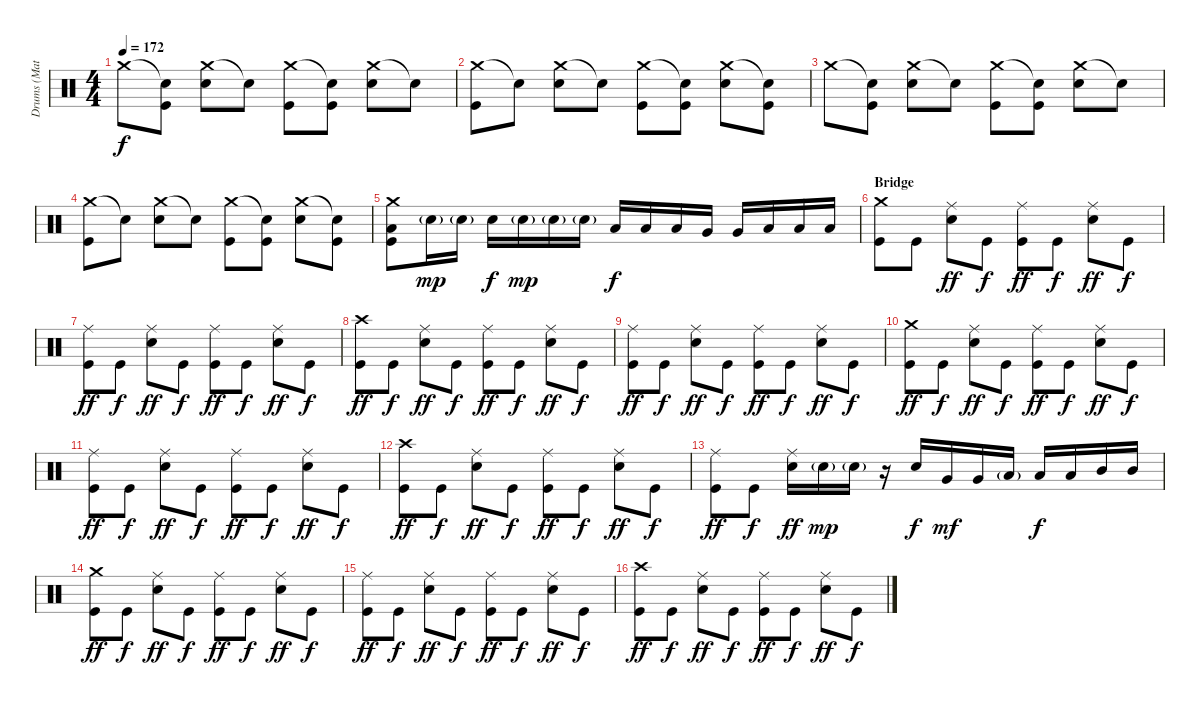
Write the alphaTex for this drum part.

\track ("Drums (Matt)" "Drums (Mat") {instrument percussion}
\staff {score}
\articulation defaults
\ts (4 4)
\tempo 172
\clef neutral
\ks c "Crash medium (hit)".8{dy f}
("Snare (hit)"{t} "Kick (hit)").8 ("Crash medium (hit)" "Electric Snare (hit)").8 "Snare (hit)"{t}.8 ("Crash medium (hit)" "Kick (hit)").8 ("Snare (hit)"{t} "Kick (hit)").8 ("Crash medium (hit)" "Electric Snare (hit)").8 "Snare (hit)"{t}.8 |
("Crash medium (hit)" "Kick (hit)").8 "Snare (hit)"{t}.8 ("Crash medium (hit)" "Electric Snare (hit)").8 "Snare (hit)"{t}.8 ("Crash medium (hit)" "Kick (hit)").8 ("Snare (hit)"{t} "Kick (hit)").8 ("Crash medium (hit)" "Electric Snare (hit)").8 ("Snare (hit)"{t} "Kick (hit)").8 |
"Crash medium (hit)".8 ("Snare (hit)"{t} "Kick (hit)").8 ("Crash medium (hit)" "Electric Snare (hit)").8 "Snare (hit)"{t}.8 ("Crash medium (hit)" "Kick (hit)").8 ("Snare (hit)"{t} "Kick (hit)").8 ("Crash medium (hit)" "Electric Snare (hit)").8 "Snare (hit)"{t}.8 |
("Crash medium (hit)" "Kick (hit)").8 "Snare (hit)"{t}.8 ("Crash medium (hit)" "Electric Snare (hit)").8 "Snare (hit)"{t}.8 ("Crash medium (hit)" "Kick (hit)").8 ("Snare (hit)"{t} "Kick (hit)").8 ("Crash medium (hit)" "Electric Snare (hit)").8 ("Snare (hit)"{t} "Kick (hit)").8 |
("Crash medium (hit)" "Low Tom (hit)" "Kick (hit)").8 "Electric Snare (hit)"{g}.16{dy mp} "Electric Snare (hit)"{g}.16 "Electric Snare (hit)".16{dy f} "Electric Snare (hit)"{g}.16{dy mp} "Electric Snare (hit)"{g}.16 "Electric Snare (hit)"{g}.16 "Low Tom (hit)".16{dy f} "Low Tom (hit)".16 "Low Tom (hit)".16 "Very Low Tom (hit)".16 "Very Low Tom (hit)".16 "Low Floor Tom (hit)".16 "Low Floor Tom (hit)".16 "Low Floor Tom (hit)".16 |
\section ("" "Bridge")
("Crash medium (hit)" "Kick (hit)").8 "Kick (hit)".8 ("Ride (middle)" "Electric Snare (hit)").8{dy ff} "Kick (hit)".8{dy f} ("Ride (middle)" "Kick (hit)").8{dy ff} "Kick (hit)".8{dy f} ("Ride (middle)" "Electric Snare (hit)").8{dy ff} "Kick (hit)".8{dy f} |
("Ride (middle)" "Kick (hit)").8{dy ff} "Kick (hit)".8{dy f} ("Ride (middle)" "Electric Snare (hit)").8{dy ff} "Kick (hit)".8{dy f} ("Ride (middle)" "Kick (hit)").8{dy ff} "Kick (hit)".8{dy f} ("Ride (middle)" "Electric Snare (hit)").8{dy ff} "Kick (hit)".8{dy f} |
("Crash high (hit)" "Kick (hit)").8{dy ff} "Kick (hit)".8{dy f} ("Ride (middle)" "Electric Snare (hit)").8{dy ff} "Kick (hit)".8{dy f} ("Ride (middle)" "Kick (hit)").8{dy ff} "Kick (hit)".8{dy f} ("Ride (middle)" "Electric Snare (hit)").8{dy ff} "Kick (hit)".8{dy f} |
("Ride (middle)" "Kick (hit)").8{dy ff} "Kick (hit)".8{dy f} ("Ride (middle)" "Electric Snare (hit)").8{dy ff} "Kick (hit)".8{dy f} ("Ride (middle)" "Kick (hit)").8{dy ff} "Kick (hit)".8{dy f} ("Ride (middle)" "Electric Snare (hit)").8{dy ff} "Kick (hit)".8{dy f} |
("Crash medium (hit)" "Kick (hit)").8{dy ff} "Kick (hit)".8{dy f} ("Ride (middle)" "Electric Snare (hit)").8{dy ff} "Kick (hit)".8{dy f} ("Ride (middle)" "Kick (hit)").8{dy ff} "Kick (hit)".8{dy f} ("Ride (middle)" "Electric Snare (hit)").8{dy ff} "Kick (hit)".8{dy f} |
("Ride (middle)" "Kick (hit)").8{dy ff} "Kick (hit)".8{dy f} ("Ride (middle)" "Electric Snare (hit)").8{dy ff} "Kick (hit)".8{dy f} ("Ride (middle)" "Kick (hit)").8{dy ff} "Kick (hit)".8{dy f} ("Ride (middle)" "Electric Snare (hit)").8{dy ff} "Kick (hit)".8{dy f} |
("Crash high (hit)" "Kick (hit)").8{dy ff} "Kick (hit)".8{dy f} ("Ride (middle)" "Electric Snare (hit)").8{dy ff} "Kick (hit)".8{dy f} ("Ride (middle)" "Kick (hit)").8{dy ff} "Kick (hit)".8{dy f} ("Ride (middle)" "Electric Snare (hit)").8{dy ff} "Kick (hit)".8{dy f} |
("Ride (middle)" "Kick (hit)").8{dy ff} "Kick (hit)".8{dy f} ("Ride (middle)" "Electric Snare (hit)").16{dy ff} "Electric Snare (hit)"{g}.16{dy mp} "Electric Snare (hit)"{g}.16 r.16 "Electric Snare (hit)".16{dy f} "Very Low Tom (hit)".16{dy mf} "Very Low Tom (hit)".16 "Low Floor Tom (hit)"{g}.16 "Low Tom (hit)".16{dy f} "Low Tom (hit)".16 "Mid Tom (hit)".16 "Mid Tom (hit)".16 |
("Crash medium (hit)" "Kick (hit)").8{dy ff} "Kick (hit)".8{dy f} ("Ride (middle)" "Electric Snare (hit)").8{dy ff} "Kick (hit)".8{dy f} ("Ride (middle)" "Kick (hit)").8{dy ff} "Kick (hit)".8{dy f} ("Ride (middle)" "Electric Snare (hit)").8{dy ff} "Kick (hit)".8{dy f} |
("Ride (middle)" "Kick (hit)").8{dy ff} "Kick (hit)".8{dy f} ("Ride (middle)" "Electric Snare (hit)").8{dy ff} "Kick (hit)".8{dy f} ("Ride (middle)" "Kick (hit)").8{dy ff} "Kick (hit)".8{dy f} ("Ride (middle)" "Electric Snare (hit)").8{dy ff} "Kick (hit)".8{dy f} |
("Crash high (hit)" "Kick (hit)").8{dy ff} "Kick (hit)".8{dy f} ("Ride (middle)" "Electric Snare (hit)").8{dy ff} "Kick (hit)".8{dy f} ("Ride (middle)" "Kick (hit)").8{dy ff} "Kick (hit)".8{dy f} ("Ride (middle)" "Electric Snare (hit)").8{dy ff} "Kick (hit)".8{dy f}
